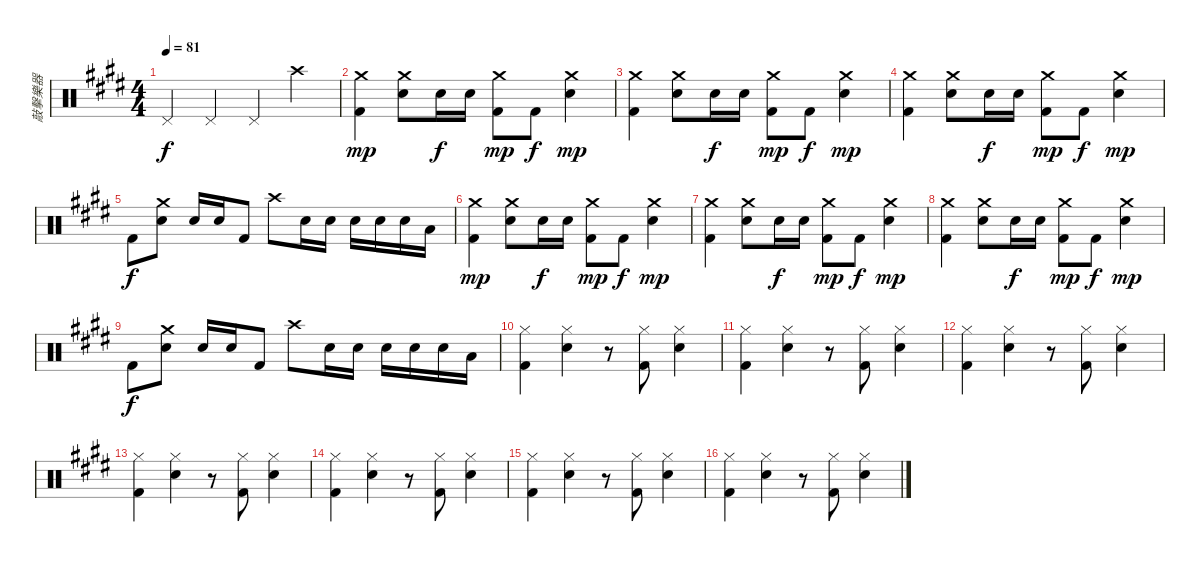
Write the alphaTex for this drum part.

\track ("敲擊樂器" "敲擊樂器") {instrument percussion}
\staff {score}
\articulation defaults
\ts (4 4)
\tempo 81
\clef neutral
\ks e "Pedal Hi-Hat (hit)".4{dy f} "Pedal Hi-Hat (hit)".4 "Pedal Hi-Hat (hit)".4 "Crash high (hit)".4
|
("Crash medium (hit)" "Kick (hit) 2").4{dy mp} ("Crash medium (hit)" "Electric Snare (hit)").8 "Snare (hit) 2".16{dy f} "Electric Snare (hit)".16 ("Crash medium (hit)" "Kick (hit) 2").8{dy mp} "Kick (hit) 2".8{dy f} ("Crash medium (hit)" "Electric Snare (hit)").4{dy mp} |
("Crash medium (hit)" "Kick (hit) 2").4 ("Crash medium (hit)" "Electric Snare (hit)").8 "Snare (hit) 2".16{dy f} "Electric Snare (hit)".16 ("Crash medium (hit)" "Kick (hit) 2").8{dy mp} "Kick (hit) 2".8{dy f} ("Crash medium (hit)" "Electric Snare (hit)").4{dy mp} |
("Crash medium (hit)" "Kick (hit) 2").4 ("Crash medium (hit)" "Electric Snare (hit)").8 "Snare (hit) 2".16{dy f} "Electric Snare (hit)".16 ("Crash medium (hit)" "Kick (hit) 2").8{dy mp} "Kick (hit) 2".8{dy f} ("Crash medium (hit)" "Electric Snare (hit)").4{dy mp} |
"Kick (hit) 2".8{dy f} ("Crash medium (hit)" "Electric Snare (hit)").8 "Snare (hit) 2".16 "Electric Snare (hit)".16 "Kick (hit) 2".8 "Crash high (hit)".8 "Snare (hit) 2".16 "Electric Snare (hit)".16 "Electric Snare (hit)".16 "Electric Snare (hit)".16 "Electric Snare (hit)".16 "Low Floor Tom (hit)".16 |
("Crash medium (hit)" "Kick (hit) 2").4{dy mp} ("Crash medium (hit)" "Electric Snare (hit)").8 "Snare (hit) 2".16{dy f} "Electric Snare (hit)".16 ("Crash medium (hit)" "Kick (hit) 2").8{dy mp} "Kick (hit) 2".8{dy f} ("Crash medium (hit)" "Electric Snare (hit)").4{dy mp} |
("Crash medium (hit)" "Kick (hit) 2").4 ("Crash medium (hit)" "Electric Snare (hit)").8 "Snare (hit) 2".16{dy f} "Electric Snare (hit)".16 ("Crash medium (hit)" "Kick (hit) 2").8{dy mp} "Kick (hit) 2".8{dy f} ("Crash medium (hit)" "Electric Snare (hit)").4{dy mp} |
("Crash medium (hit)" "Kick (hit) 2").4 ("Crash medium (hit)" "Electric Snare (hit)").8 "Snare (hit) 2".16{dy f} "Electric Snare (hit)".16 ("Crash medium (hit)" "Kick (hit) 2").8{dy mp} "Kick (hit) 2".8{dy f} ("Crash medium (hit)" "Electric Snare (hit)").4{dy mp} |
"Kick (hit) 2".8{dy f} ("Crash medium (hit)" "Electric Snare (hit)").8 "Snare (hit) 2".16 "Electric Snare (hit)".16 "Kick (hit) 2".8 "Crash high (hit)".8 "Snare (hit) 2".16 "Electric Snare (hit)".16 "Electric Snare (hit)".16 "Electric Snare (hit)".16 "Electric Snare (hit)".16 "Low Floor Tom (hit)".16 |
("Hi-Hat (closed)" "Kick (hit) 2").4 ("Hi-Hat (closed)" "Snare (hit) 2").4 r.8 ("Hi-Hat (closed)" "Kick (hit) 2").8 ("Hi-Hat (closed)" "Snare (hit) 2").4 |
("Hi-Hat (closed)" "Kick (hit) 2").4 ("Hi-Hat (closed)" "Snare (hit) 2").4 r.8 ("Hi-Hat (closed)" "Kick (hit) 2").8 ("Hi-Hat (closed)" "Snare (hit) 2").4 |
("Hi-Hat (closed)" "Kick (hit) 2").4 ("Hi-Hat (closed)" "Snare (hit) 2").4 r.8 ("Hi-Hat (closed)" "Kick (hit) 2").8 ("Hi-Hat (closed)" "Snare (hit) 2").4 |
("Hi-Hat (closed)" "Kick (hit) 2").4 ("Hi-Hat (closed)" "Snare (hit) 2").4 r.8 ("Hi-Hat (closed)" "Kick (hit) 2").8 ("Hi-Hat (closed)" "Snare (hit) 2").4 |
("Hi-Hat (closed)" "Kick (hit) 2").4 ("Hi-Hat (closed)" "Snare (hit) 2").4 r.8 ("Hi-Hat (closed)" "Kick (hit) 2").8 ("Hi-Hat (closed)" "Snare (hit) 2").4 |
("Hi-Hat (closed)" "Kick (hit) 2").4 ("Hi-Hat (closed)" "Snare (hit) 2").4 r.8 ("Hi-Hat (closed)" "Kick (hit) 2").8 ("Hi-Hat (closed)" "Snare (hit) 2").4 |
("Hi-Hat (closed)" "Kick (hit) 2").4 ("Hi-Hat (closed)" "Snare (hit) 2").4 r.8 ("Hi-Hat (closed)" "Kick (hit) 2").8 ("Hi-Hat (closed)" "Snare (hit) 2").4
